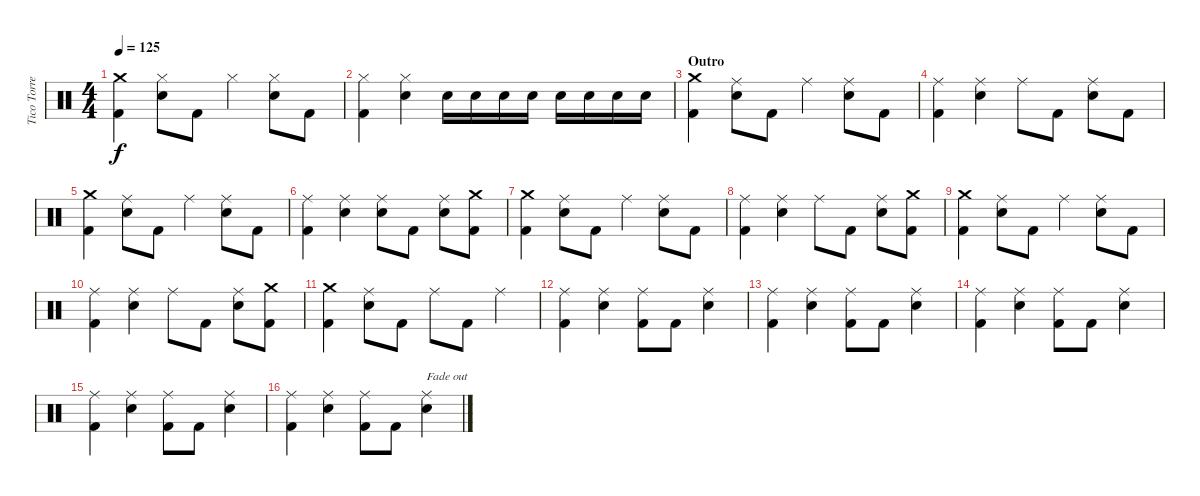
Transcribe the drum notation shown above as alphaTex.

\track ("Tico Torres" "Tico Torre") {instrument percussion}
\staff {score}
\articulation defaults
\ts (4 4)
\tempo 125
\clef neutral
\ks c
("Crash medium (hit)" "Kick (hit) 2").4{dy f} ("Hi-Hat (closed)" "Snare (hit) 2").8 "Kick (hit) 2".8 "Hi-Hat (closed)".4 ("Hi-Hat (closed)" "Snare (hit) 2").8 "Kick (hit) 2".8 |
("Hi-Hat (closed)" "Kick (hit) 2").4 ("Hi-Hat (closed)" "Snare (hit) 2").4 "Snare (hit) 2".16 "Snare (hit) 2".16 "Snare (hit) 2".16 "Snare (hit) 2".16 "Snare (hit) 2".16 "Snare (hit) 2".16 "Snare (hit) 2".16 "Snare (hit) 2".16 |
\section ("" "Outro")
("Crash medium (hit)" "Kick (hit) 2").4 ("Ride (middle)" "Snare (hit) 2").8 "Kick (hit) 2".8 "Ride (middle)".4 ("Ride (middle)" "Snare (hit) 2").8 "Kick (hit) 2".8 |
("Ride (middle)" "Kick (hit) 2").4 ("Ride (middle)" "Snare (hit) 2").4 "Ride (middle)".8 "Kick (hit) 2".8 ("Ride (middle)" "Snare (hit) 2").8 "Kick (hit) 2".8 |
("Crash medium (hit)" "Kick (hit) 2").4 ("Ride (middle)" "Snare (hit) 2").8 "Kick (hit) 2".8 "Ride (middle)".4 ("Ride (middle)" "Snare (hit) 2").8 "Kick (hit) 2".8 |
("Ride (middle)" "Kick (hit) 2").4 ("Ride (middle)" "Snare (hit) 2").4 ("Ride (middle)" "Snare (hit) 2").8 "Kick (hit) 2".8 ("Ride (middle)" "Snare (hit) 2").8 ("Crash medium (hit)" "Kick (hit) 2").8 |
("Crash medium (hit)" "Kick (hit) 2").4 ("Ride (middle)" "Snare (hit) 2").8 "Kick (hit) 2".8 "Ride (middle)".4 ("Ride (middle)" "Snare (hit) 2").8 "Kick (hit) 2".8 |
("Ride (middle)" "Kick (hit) 2").4 ("Ride (middle)" "Snare (hit) 2").4 "Ride (middle)".8 "Kick (hit) 2".8 ("Ride (middle)" "Snare (hit) 2").8 ("Crash medium (hit)" "Kick (hit) 2").8 |
("Crash medium (hit)" "Kick (hit) 2").4 ("Ride (middle)" "Snare (hit) 2").8 "Kick (hit) 2".8 "Ride (middle)".4 ("Ride (middle)" "Snare (hit) 2").8 "Kick (hit) 2".8 |
("Ride (middle)" "Kick (hit) 2").4 ("Ride (middle)" "Snare (hit) 2").4 "Ride (middle)".8 "Kick (hit) 2".8 ("Ride (middle)" "Snare (hit) 2").8 ("Crash medium (hit)" "Kick (hit) 2").8 |
("Crash medium (hit)" "Kick (hit) 2").4 ("Ride (middle)" "Snare (hit) 2").8 "Kick (hit) 2".8 "Ride (middle)".8 "Kick (hit) 2".8 "Ride (middle)".4 |
("Ride (middle)" "Kick (hit) 2").4 ("Ride (middle)" "Snare (hit) 2").4 ("Ride (middle)" "Kick (hit) 2").8 "Kick (hit) 2".8 ("Ride (middle)" "Snare (hit) 2").4 |
("Ride (middle)" "Kick (hit) 2").4 ("Ride (middle)" "Snare (hit) 2").4 ("Ride (middle)" "Kick (hit) 2").8 "Kick (hit) 2".8 ("Ride (middle)" "Snare (hit) 2").4 |
("Ride (middle)" "Kick (hit) 2").4 ("Ride (middle)" "Snare (hit) 2").4 ("Ride (middle)" "Kick (hit) 2").8 "Kick (hit) 2".8 ("Ride (middle)" "Snare (hit) 2").4 |
("Ride (middle)" "Kick (hit) 2").4 ("Ride (middle)" "Snare (hit) 2").4 ("Ride (middle)" "Kick (hit) 2").8 "Kick (hit) 2".8 ("Ride (middle)" "Snare (hit) 2").4 |
("Ride (middle)" "Kick (hit) 2").4 ("Ride (middle)" "Snare (hit) 2").4 ("Ride (middle)" "Kick (hit) 2").8 "Kick (hit) 2".8 ("Ride (middle)" "Snare (hit) 2").4{txt "Fade out"}
